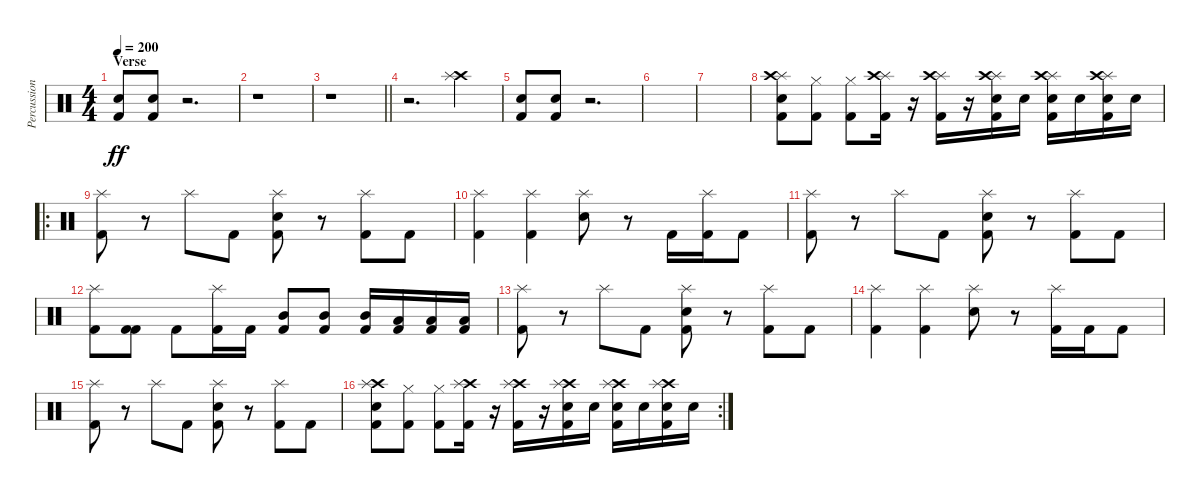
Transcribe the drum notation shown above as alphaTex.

\track ("Percussion" "Percussion") {instrument percussion}
\staff {score}
\articulation defaults
\ts (4 4)
\section ("" "Verse")
\tempo 200
\clef neutral
\ks c
("Electric Snare (hit)" "Kick (hit) 2").8{dy ff} ("Electric Snare (hit)" "Kick (hit) 2").8 r.2{d} |
r.1 |
\barLineRight lightlight
r.1 |
r.2{d} ("Crash high (hit)" "Splash (hit)").4 |
("Electric Snare (hit)" "Kick (hit) 2").8 ("Electric Snare (hit)" "Kick (hit) 2").8 r.2{d} |
|
|
("Splash (hit)" "Crash high (hit)" "Electric Snare (hit)" "Kick (hit) 2").8 ("Hi-Hat (closed)" "Kick (hit) 2").8 ("Hi-Hat (closed)" "Kick (hit) 2").8 ("Splash (hit)" "Crash high (hit)" "Kick (hit) 2").16 r.16 ("Splash (hit)" "Crash high (hit)" "Kick (hit) 2").16 r.16 ("Splash (hit)" "Crash high (hit)" "Electric Snare (hit)" "Kick (hit) 2").16 "Electric Snare (hit)".16 ("Splash (hit)" "Crash high (hit)" "Electric Snare (hit)" "Kick (hit) 2").16 "Electric Snare (hit)".16 ("Splash (hit)" "Crash high (hit)" "Electric Snare (hit)" "Kick (hit) 2").16 "Electric Snare (hit)".16 |
\ro
("Splash (hit)" "Kick (hit) 2").8 r.8 "Splash (hit)".8 "Kick (hit) 2".8 ("Splash (hit)" "Electric Snare (hit)" "Kick (hit) 2").8 r.8 ("Splash (hit)" "Kick (hit) 2").8 "Kick (hit) 2".8 |
("Splash (hit)" "Kick (hit) 2").4 ("Splash (hit)" "Kick (hit) 2").4 ("Splash (hit)" "Electric Snare (hit)").8 r.8 "Kick (hit) 2".16 ("Splash (hit)" "Kick (hit) 2").16 "Kick (hit) 2".8 |
("Splash (hit)" "Kick (hit) 2").8 r.8 "Splash (hit)".8 "Kick (hit) 2".8 ("Splash (hit)" "Electric Snare (hit)" "Kick (hit) 2").8 r.8 ("Splash (hit)" "Kick (hit) 2").8 "Kick (hit) 2".8 |
("Splash (hit)" "Kick (hit) 2").8 ("Kick (hit) 2" "Kick (hit) 2").8 "Kick (hit) 2".8 ("Splash (hit)" "Kick (hit) 2").16 "Kick (hit) 2".16 ("Mid Tom (hit)" "Kick (hit) 2").8 ("Mid Tom (hit)" "Kick (hit) 2").8 ("Mid Tom (hit)" "Kick (hit) 2").16 ("Low Tom (hit)" "Kick (hit) 2").16 ("Low Tom (hit)" "Kick (hit) 2").16 ("Low Tom (hit)" "Kick (hit) 2").16 |
("Splash (hit)" "Kick (hit) 2").8 r.8 "Splash (hit)".8 "Kick (hit) 2".8 ("Splash (hit)" "Electric Snare (hit)" "Kick (hit) 2").8 r.8 ("Splash (hit)" "Kick (hit) 2").8 "Kick (hit) 2".8 |
("Splash (hit)" "Kick (hit) 2").4 ("Splash (hit)" "Kick (hit) 2").4 ("Splash (hit)" "Electric Snare (hit)").8 r.8 ("Splash (hit)" "Kick (hit) 2").16 "Kick (hit) 2".16 "Kick (hit) 2".8 |
("Splash (hit)" "Kick (hit) 2").8 r.8 "Splash (hit)".8 "Kick (hit) 2".8 ("Splash (hit)" "Electric Snare (hit)" "Kick (hit) 2").8 r.8 ("Splash (hit)" "Kick (hit) 2").8 "Kick (hit) 2".8 |
\rc 2
("Crash high (hit)" "Splash (hit)" "Electric Snare (hit)" "Kick (hit) 2").8 ("Hi-Hat (closed)" "Kick (hit) 2").8 ("Hi-Hat (closed)" "Kick (hit) 2").8 ("Crash high (hit)" "Splash (hit)" "Kick (hit) 2").16 r.16 ("Crash high (hit)" "Splash (hit)" "Kick (hit) 2").16 r.16 ("Crash high (hit)" "Splash (hit)" "Electric Snare (hit)" "Kick (hit) 2").16 "Electric Snare (hit)".16 ("Crash high (hit)" "Splash (hit)" "Electric Snare (hit)" "Kick (hit) 2").16 "Electric Snare (hit)".16 ("Crash high (hit)" "Splash (hit)" "Electric Snare (hit)" "Kick (hit) 2").16 "Electric Snare (hit)".16
